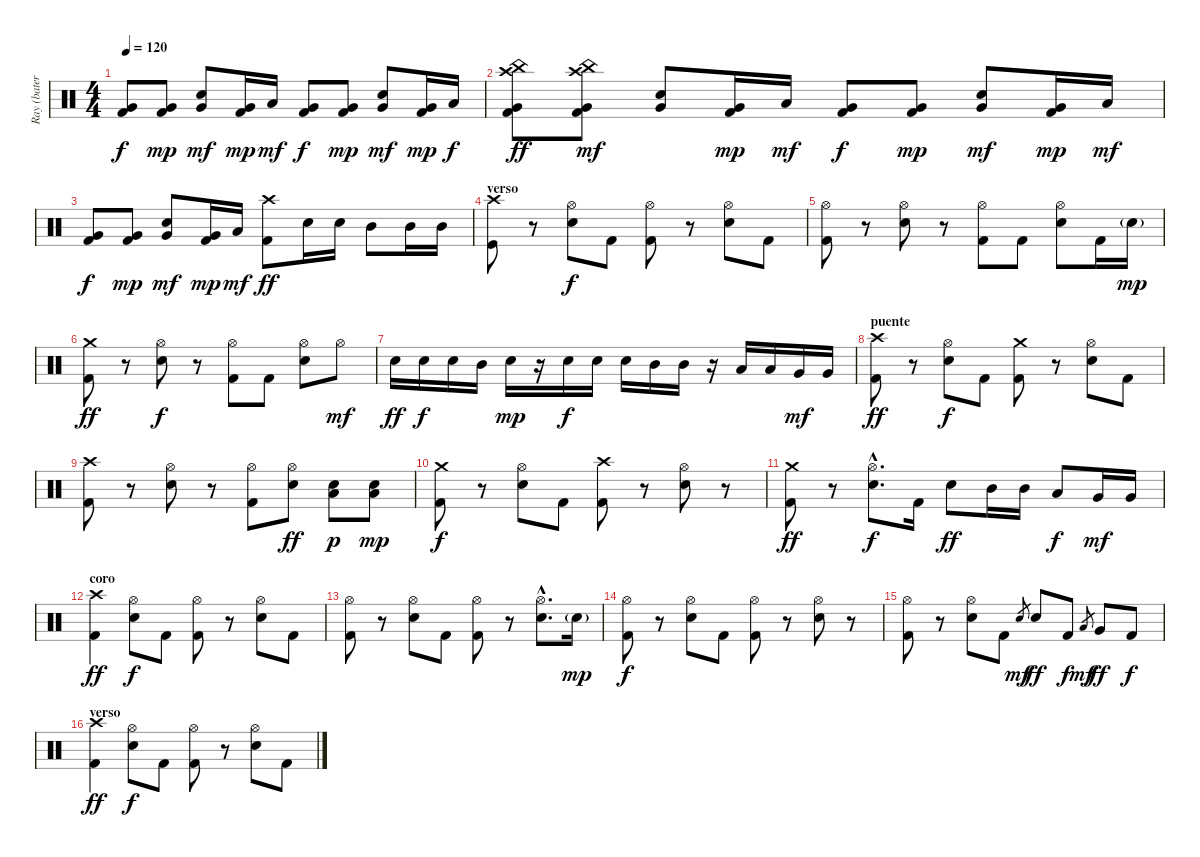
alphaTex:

\track ("Ray (batería)" "Ray (bater") {instrument percussion}
\staff {score}
\articulation defaults
\ts (4 4)
\tempo 120
\clef neutral
\ks c
("Very Low Tom (hit)" "Kick (hit) 2").8{dy f} ("Very Low Tom (hit)" "Kick (hit) 2").8{dy mp} ("Snare (hit) 2" "Very Low Tom (hit)").8{dy mf} ("Very Low Tom (hit)" "Kick (hit) 2").16{dy mp} "Low Tom (hit)".16{dy mf} ("Very Low Tom (hit)" "Kick (hit) 2").8{dy f} ("Very Low Tom (hit)" "Kick (hit) 2").8{dy mp} ("Snare (hit) 2" "Very Low Tom (hit)").8{dy mf} ("Very Low Tom (hit)" "Kick (hit) 2").16{dy mp} "Low Tom (hit)".16{dy f} |
("Crash high (hit)" "China (hit)" "Very Low Tom (hit)" "Kick (hit) 2").8{dy ff} ("Crash high (hit)" "China (hit)" "Very Low Tom (hit)" "Kick (hit) 2").8{dy mf} ("Snare (hit) 2" "Very Low Tom (hit)").8 ("Very Low Tom (hit)" "Kick (hit) 2").16{dy mp} "Low Tom (hit)".16{dy mf} ("Very Low Tom (hit)" "Kick (hit) 2").8{dy f} ("Very Low Tom (hit)" "Kick (hit) 2").8{dy mp} ("Snare (hit) 2" "Very Low Tom (hit)").8{dy mf} ("Very Low Tom (hit)" "Kick (hit) 2").16{dy mp} "Low Tom (hit)".16{dy mf} |
("Very Low Tom (hit)" "Kick (hit) 2").8{dy f} ("Very Low Tom (hit)" "Kick (hit) 2").8{dy mp} ("Snare (hit) 2" "Very Low Tom (hit)").8{dy mf} ("Very Low Tom (hit)" "Kick (hit) 2").16{dy mp} "Low Tom (hit)".16{dy mf} ("Crash high (hit)" "Kick (hit) 2").8{dy ff} "Snare (hit) 2".16 "Snare (hit) 2".16 "Mid Tom (hit)".8 "Mid Tom (hit)".16 "Mid Tom (hit)".16 |
\section ("" "verso")
("Crash high (hit)" "Kick (hit)").8 r.8 ("Hi-Hat (open)" "Snare (hit) 2").8{dy f} "Kick (hit) 2".8 ("Hi-Hat (open)" "Kick (hit) 2").8 r.8 ("Hi-Hat (open)" "Snare (hit) 2").8 "Kick (hit) 2".8 |
("Hi-Hat (open)" "Kick (hit) 2").8 r.8 ("Hi-Hat (open)" "Snare (hit) 2").8 r.8 ("Hi-Hat (open)" "Kick (hit) 2").8 "Kick (hit) 2".8 ("Hi-Hat (open)" "Snare (hit) 2").8 "Kick (hit) 2".16 "Snare (hit) 2"{g}.16{dy mp} |
("Crash medium (hit)" "Kick (hit) 2").8{dy ff} r.8 ("Hi-Hat (open)" "Snare (hit) 2").8{dy f} r.8 ("Hi-Hat (open)" "Kick (hit) 2").8 "Kick (hit) 2".8 ("Hi-Hat (open)" "Snare (hit) 2").8 "Hi-Hat (open)".8{dy mf} |
"Snare (hit) 2".16{dy ff} "Snare (hit) 2".16{dy f} "Snare (hit) 2".16 "Mid Tom (hit)".16 "Snare (hit) 2".16{dy mp} r.16 "Snare (hit) 2".16{dy f} "Snare (hit) 2".16 "Snare (hit) 2".16 "Mid Tom (hit)".16 "Mid Tom (hit)".16 r.16 "Low Tom (hit)".16 "Low Tom (hit)".16 "Very Low Tom (hit)".16{dy mf} "Very Low Tom (hit)".16 |
\section ("" "puente")
("Crash high (hit)" "Kick (hit) 2").8{dy ff} r.8 ("Hi-Hat (open)" "Snare (hit) 2").8{dy f} "Kick (hit) 2".8 ("Crash medium (hit)" "Kick (hit) 2").8 r.8 ("Hi-Hat (open)" "Snare (hit) 2").8 "Kick (hit) 2".8 |
("Crash high (hit)" "Kick (hit) 2").8 r.8 ("Hi-Hat (open)" "Snare (hit) 2").8 r.8 ("Hi-Hat (open)" "Kick (hit) 2").8 ("Hi-Hat (open)" "Snare (hit) 2").8{dy ff} ("Snare (hit) 2" "Low Tom (hit)").8{dy p} ("Snare (hit) 2" "Low Tom (hit)").8{dy mp} |
("Crash medium (hit)" "Kick (hit) 2").8{dy f} r.8 ("Hi-Hat (open)" "Snare (hit) 2").8 "Kick (hit) 2".8 ("Crash high (hit)" "Kick (hit) 2").8 r.8 ("Hi-Hat (open)" "Snare (hit) 2").8 r.8 |
("Crash medium (hit)" "Kick (hit) 2").8{dy ff} r.8 ("Hi-Hat (open)"{hac} "Snare (hit) 2"{hac}).8{d dy f} "Kick (hit) 2".16 "Snare (hit) 2".8{dy ff} "Mid Tom (hit)".16 "Mid Tom (hit)".16 "Low Tom (hit)".8{dy f} "Very Low Tom (hit)".16{dy mf} "Very Low Tom (hit)".16 |
\section ("" "coro")
("Crash high (hit)" "Kick (hit) 2").4{dy ff} ("Hi-Hat (open)" "Snare (hit) 2").8{dy f} "Kick (hit) 2".8 ("Hi-Hat (open)" "Kick (hit) 2").8 r.8 ("Hi-Hat (open)" "Snare (hit) 2").8 "Kick (hit) 2".8 |
("Hi-Hat (open)" "Kick (hit) 2").8 r.8 ("Hi-Hat (open)" "Snare (hit) 2").8 "Kick (hit) 2".8 ("Hi-Hat (open)" "Kick (hit) 2").8 r.8 ("Hi-Hat (open)"{hac} "Snare (hit) 2"{hac}).8{d} "Snare (hit) 2"{g}.16{dy mp} |
("Hi-Hat (open)" "Kick (hit) 2").8{dy f} r.8 ("Hi-Hat (open)" "Snare (hit) 2").8 "Kick (hit) 2".8 ("Hi-Hat (open)" "Kick (hit) 2").8 r.8 ("Hi-Hat (open)" "Snare (hit) 2").8 r.8 |
("Hi-Hat (open)" "Kick (hit) 2").8 r.8 ("Hi-Hat (open)" "Snare (hit) 2").8 "Kick (hit) 2".8 "Snare (hit) 2".8{gr dy mf} "Snare (hit) 2".8{dy ff} "Kick (hit) 2".8{dy f} "Low Floor Tom (hit)".8{gr dy mf} "Very Low Tom (hit)".8{dy ff} "Kick (hit) 2".8{dy f} |
\section ("" "verso")
("Crash high (hit)" "Kick (hit) 2").4{dy ff} ("Hi-Hat (open)" "Snare (hit) 2").8{dy f} "Kick (hit) 2".8 ("Hi-Hat (open)" "Kick (hit) 2").8 r.8 ("Hi-Hat (open)" "Snare (hit) 2").8 "Kick (hit) 2".8
